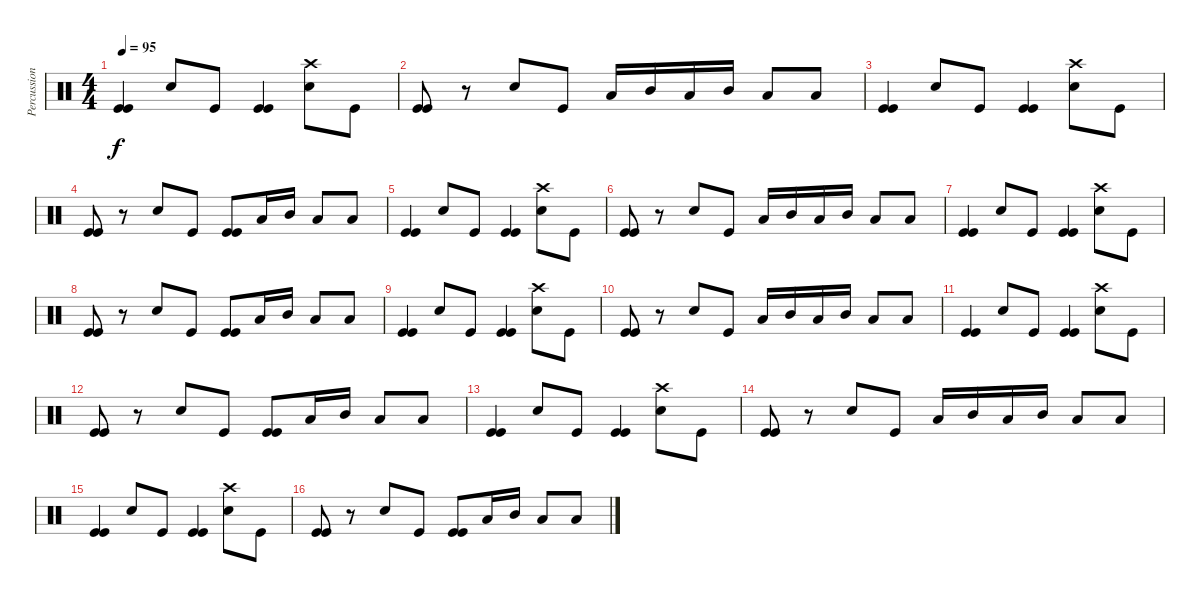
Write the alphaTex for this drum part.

\track ("Percussion" "Percussion") {instrument percussion}
\staff {score}
\articulation defaults
\ts (4 4)
\tempo 95
\clef neutral
\ks c
("Kick (hit)" "Kick (hit)").4{dy f} "Electric Snare (hit)".8 "Kick (hit)".8 ("Kick (hit)" "Kick (hit)").4 ("Electric Snare (hit)" "Crash high (hit)").8 "Kick (hit)".8 |
("Kick (hit)" "Kick (hit)").8 r.8 "Electric Snare (hit)".8 "Kick (hit)".8 "Low Tom (hit)".16 "Mid Tom (hit)".16 "Low Tom (hit)".16 "Mid Tom (hit)".16 "Low Tom (hit)".8 "Low Tom (hit)".8 |
("Kick (hit)" "Kick (hit)").4 "Electric Snare (hit)".8 "Kick (hit)".8 ("Kick (hit)" "Kick (hit)").4 ("Electric Snare (hit)" "Crash high (hit)").8 "Kick (hit)".8 |
("Kick (hit)" "Kick (hit)").8 r.8 "Electric Snare (hit)".8 "Kick (hit)".8 ("Kick (hit)" "Kick (hit)").8 "Low Tom (hit)".16 "Mid Tom (hit)".16 "Low Tom (hit)".8 "Low Tom (hit)".8 |
("Kick (hit)" "Kick (hit)").4 "Electric Snare (hit)".8 "Kick (hit)".8 ("Kick (hit)" "Kick (hit)").4 ("Electric Snare (hit)" "Crash high (hit)").8 "Kick (hit)".8 |
("Kick (hit)" "Kick (hit)").8 r.8 "Electric Snare (hit)".8 "Kick (hit)".8 "Low Tom (hit)".16 "Mid Tom (hit)".16 "Low Tom (hit)".16 "Mid Tom (hit)".16 "Low Tom (hit)".8 "Low Tom (hit)".8 |
("Kick (hit)" "Kick (hit)").4 "Electric Snare (hit)".8 "Kick (hit)".8 ("Kick (hit)" "Kick (hit)").4 ("Electric Snare (hit)" "Crash high (hit)").8 "Kick (hit)".8 |
("Kick (hit)" "Kick (hit)").8 r.8 "Electric Snare (hit)".8 "Kick (hit)".8 ("Kick (hit)" "Kick (hit)").8 "Low Tom (hit)".16 "Mid Tom (hit)".16 "Low Tom (hit)".8 "Low Tom (hit)".8 |
("Kick (hit)" "Kick (hit)").4 "Electric Snare (hit)".8 "Kick (hit)".8 ("Kick (hit)" "Kick (hit)").4 ("Electric Snare (hit)" "Crash high (hit)").8 "Kick (hit)".8 |
("Kick (hit)" "Kick (hit)").8 r.8 "Electric Snare (hit)".8 "Kick (hit)".8 "Low Tom (hit)".16 "Mid Tom (hit)".16 "Low Tom (hit)".16 "Mid Tom (hit)".16 "Low Tom (hit)".8 "Low Tom (hit)".8 |
("Kick (hit)" "Kick (hit)").4 "Electric Snare (hit)".8 "Kick (hit)".8 ("Kick (hit)" "Kick (hit)").4 ("Electric Snare (hit)" "Crash high (hit)").8 "Kick (hit)".8 |
("Kick (hit)" "Kick (hit)").8 r.8 "Electric Snare (hit)".8 "Kick (hit)".8 ("Kick (hit)" "Kick (hit)").8 "Low Tom (hit)".16 "Mid Tom (hit)".16 "Low Tom (hit)".8 "Low Tom (hit)".8 |
("Kick (hit)" "Kick (hit)").4 "Electric Snare (hit)".8 "Kick (hit)".8 ("Kick (hit)" "Kick (hit)").4 ("Electric Snare (hit)" "Crash high (hit)").8 "Kick (hit)".8 |
("Kick (hit)" "Kick (hit)").8 r.8 "Electric Snare (hit)".8 "Kick (hit)".8 "Low Tom (hit)".16 "Mid Tom (hit)".16 "Low Tom (hit)".16 "Mid Tom (hit)".16 "Low Tom (hit)".8 "Low Tom (hit)".8 |
("Kick (hit)" "Kick (hit)").4 "Electric Snare (hit)".8 "Kick (hit)".8 ("Kick (hit)" "Kick (hit)").4 ("Electric Snare (hit)" "Crash high (hit)").8 "Kick (hit)".8 |
("Kick (hit)" "Kick (hit)").8 r.8 "Electric Snare (hit)".8 "Kick (hit)".8 ("Kick (hit)" "Kick (hit)").8 "Low Tom (hit)".16 "Mid Tom (hit)".16 "Low Tom (hit)".8 "Low Tom (hit)".8
